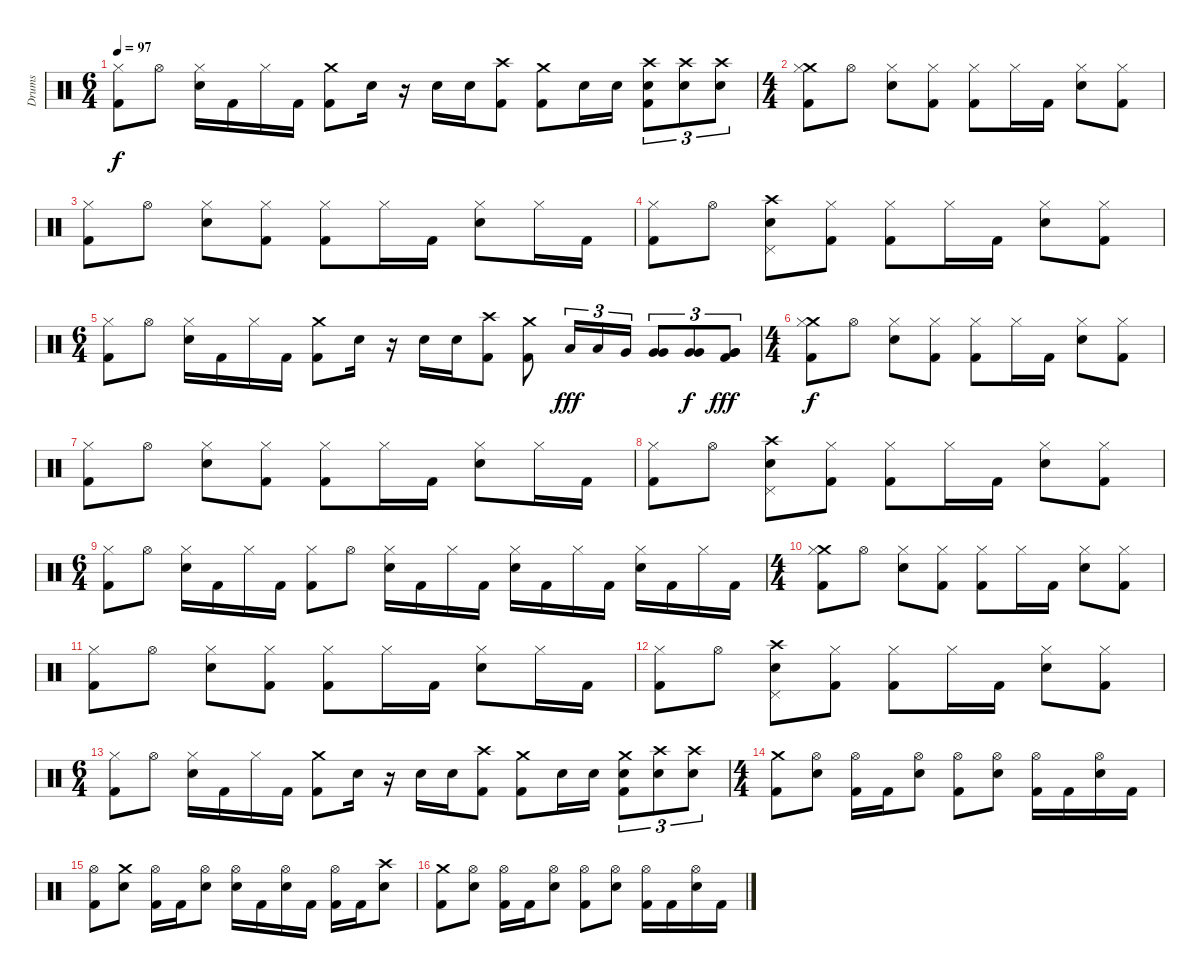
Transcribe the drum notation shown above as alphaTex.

\track ("Drums" "Drums") {instrument percussion}
\staff {score}
\articulation defaults
\ts (6 4)
\tempo 97
\clef neutral
\ks c
("Hi-Hat (closed)" "Kick (hit) 2").8{dy f} "Hi-Hat (open)".8 ("Hi-Hat (closed)" "Snare (hit) 2").16 "Kick (hit) 2".16 "Hi-Hat (closed)".16 "Kick (hit) 2".16 ("Crash medium (hit)" "Kick (hit) 2").8 "Snare (hit) 2".16 r.16 "Snare (hit) 2".16 "Snare (hit) 2".16 ("Crash high (hit)" "Kick (hit) 2").8 ("Crash medium (hit)" "Kick (hit) 2").8 "Snare (hit) 2".16 "Snare (hit) 2".16 ("Crash high (hit)" "Snare (hit) 2" "Kick (hit) 2").8{tu (3 2)} ("Crash high (hit)" "Snare (hit) 2").8{tu (3 2)} ("Crash high (hit)" "Snare (hit) 2").8{tu (3 2)} |
\ts (4 4)
("Crash medium (hit)" "Hi-Hat (closed)" "Kick (hit) 2").8 "Hi-Hat (open)".8 ("Hi-Hat (closed)" "Snare (hit) 2").8 ("Hi-Hat (closed)" "Kick (hit) 2").8 ("Hi-Hat (closed)" "Kick (hit) 2").8 "Hi-Hat (closed)".16 "Kick (hit) 2".16 ("Hi-Hat (closed)" "Snare (hit) 2").8 ("Hi-Hat (closed)" "Kick (hit) 2").8 |
("Hi-Hat (closed)" "Kick (hit) 2").8 "Hi-Hat (open)".8 ("Hi-Hat (closed)" "Snare (hit) 2").8 ("Hi-Hat (closed)" "Kick (hit) 2").8 ("Hi-Hat (closed)" "Kick (hit) 2").8 "Hi-Hat (closed)".16 "Kick (hit) 2".16 ("Hi-Hat (closed)" "Snare (hit) 2").8 "Hi-Hat (closed)".16 "Kick (hit) 2".16 |
("Hi-Hat (closed)" "Kick (hit) 2").8 "Hi-Hat (open)".8 ("Crash high (hit)" "Pedal Hi-Hat (hit)" "Snare (hit) 2").8 ("Hi-Hat (closed)" "Kick (hit) 2").8 ("Hi-Hat (closed)" "Kick (hit) 2").8 "Hi-Hat (closed)".16 "Kick (hit) 2".16 ("Hi-Hat (closed)" "Snare (hit) 2").8 ("Hi-Hat (closed)" "Kick (hit) 2").8 |
\ts (6 4)
("Hi-Hat (closed)" "Kick (hit) 2").8 "Hi-Hat (open)".8 ("Hi-Hat (closed)" "Snare (hit) 2").16 "Kick (hit) 2".16 "Hi-Hat (closed)".16 "Kick (hit) 2".16 ("Crash medium (hit)" "Kick (hit) 2").8 "Snare (hit) 2".16 r.16 "Snare (hit) 2".16 "Snare (hit) 2".16 ("Crash high (hit)" "Kick (hit) 2").8 ("Crash medium (hit)" "Kick (hit) 2").8 "Low Tom (hit)".16{tu (3 2) dy fff} "Low Tom (hit)".16{tu (3 2)} "Very Low Tom (hit)".16{tu (3 2)} ("Very Low Tom (hit)" "Very Low Tom (hit)").8{tu (3 2)} ("Very Low Tom (hit)" "Very Low Tom (hit)").8{tu (3 2) dy f} ("Very Low Tom (hit)" "Very Low Tom (hit)" "Kick (hit) 2").8{tu (3 2) dy fff} |
\ts (4 4)
("Crash medium (hit)" "Hi-Hat (closed)" "Kick (hit) 2").8{dy f} "Hi-Hat (open)".8 ("Hi-Hat (closed)" "Snare (hit) 2").8 ("Hi-Hat (closed)" "Kick (hit) 2").8 ("Hi-Hat (closed)" "Kick (hit) 2").8 "Hi-Hat (closed)".16 "Kick (hit) 2".16 ("Hi-Hat (closed)" "Snare (hit) 2").8 ("Hi-Hat (closed)" "Kick (hit) 2").8 |
("Hi-Hat (closed)" "Kick (hit) 2").8 "Hi-Hat (open)".8 ("Hi-Hat (closed)" "Snare (hit) 2").8 ("Hi-Hat (closed)" "Kick (hit) 2").8 ("Hi-Hat (closed)" "Kick (hit) 2").8 "Hi-Hat (closed)".16 "Kick (hit) 2".16 ("Hi-Hat (closed)" "Snare (hit) 2").8 "Hi-Hat (closed)".16 "Kick (hit) 2".16 |
("Hi-Hat (closed)" "Kick (hit) 2").8 "Hi-Hat (open)".8 ("Crash high (hit)" "Pedal Hi-Hat (hit)" "Snare (hit) 2").8 ("Hi-Hat (closed)" "Kick (hit) 2").8 ("Hi-Hat (closed)" "Kick (hit) 2").8 "Hi-Hat (closed)".16 "Kick (hit) 2".16 ("Hi-Hat (closed)" "Snare (hit) 2").8 ("Hi-Hat (closed)" "Kick (hit) 2").8 |
\ts (6 4)
("Hi-Hat (closed)" "Kick (hit) 2").8 "Hi-Hat (open)".8 ("Hi-Hat (closed)" "Snare (hit) 2").16 "Kick (hit) 2".16 "Hi-Hat (closed)".16 "Kick (hit) 2".16 ("Hi-Hat (closed)" "Kick (hit) 2").8 "Hi-Hat (open)".8 ("Hi-Hat (closed)" "Snare (hit) 2").16 "Kick (hit) 2".16 "Hi-Hat (closed)".16 "Kick (hit) 2".16 ("Hi-Hat (closed)" "Snare (hit) 2").16 "Kick (hit) 2".16 "Hi-Hat (closed)".16 "Kick (hit) 2".16 ("Hi-Hat (closed)" "Snare (hit) 2").16 "Kick (hit) 2".16 "Hi-Hat (closed)".16 "Kick (hit) 2".16 |
\ts (4 4)
("Crash medium (hit)" "Hi-Hat (closed)" "Kick (hit) 2").8 "Hi-Hat (open)".8 ("Hi-Hat (closed)" "Snare (hit) 2").8 ("Hi-Hat (closed)" "Kick (hit) 2").8 ("Hi-Hat (closed)" "Kick (hit) 2").8 "Hi-Hat (closed)".16 "Kick (hit) 2".16 ("Hi-Hat (closed)" "Snare (hit) 2").8 ("Hi-Hat (closed)" "Kick (hit) 2").8 |
("Hi-Hat (closed)" "Kick (hit) 2").8 "Hi-Hat (open)".8 ("Hi-Hat (closed)" "Snare (hit) 2").8 ("Hi-Hat (closed)" "Kick (hit) 2").8 ("Hi-Hat (closed)" "Kick (hit) 2").8 "Hi-Hat (closed)".16 "Kick (hit) 2".16 ("Hi-Hat (closed)" "Snare (hit) 2").8 "Hi-Hat (closed)".16 "Kick (hit) 2".16 |
("Hi-Hat (closed)" "Kick (hit) 2").8 "Hi-Hat (open)".8 ("Crash high (hit)" "Pedal Hi-Hat (hit)" "Snare (hit) 2").8 ("Hi-Hat (closed)" "Kick (hit) 2").8 ("Hi-Hat (closed)" "Kick (hit) 2").8 "Hi-Hat (closed)".16 "Kick (hit) 2".16 ("Hi-Hat (closed)" "Snare (hit) 2").8 ("Hi-Hat (closed)" "Kick (hit) 2").8 |
\ts (6 4)
("Hi-Hat (closed)" "Kick (hit) 2").8 "Hi-Hat (open)".8 ("Hi-Hat (closed)" "Snare (hit) 2").16 "Kick (hit) 2".16 "Hi-Hat (closed)".16 "Kick (hit) 2".16 ("Crash medium (hit)" "Kick (hit) 2").8 "Snare (hit) 2".16 r.16 "Snare (hit) 2".16 "Snare (hit) 2".16 ("Crash high (hit)" "Kick (hit) 2").8 ("Crash medium (hit)" "Kick (hit) 2").8 "Snare (hit) 2".16 "Snare (hit) 2".16 ("Crash medium (hit)" "Snare (hit) 2" "Kick (hit) 2").8{tu (3 2)} ("Crash high (hit)" "Snare (hit) 2").8{tu (3 2)} ("Crash high (hit)" "Snare (hit) 2").8{tu (3 2)} |
\ts (4 4)
("Crash medium (hit)" "Kick (hit) 2").8 ("Hi-Hat (open)" "Snare (hit) 2").8 ("Hi-Hat (open)" "Kick (hit) 2").16 "Kick (hit) 2".16 ("Hi-Hat (open)" "Snare (hit) 2").8 ("Hi-Hat (open)" "Kick (hit) 2").8 ("Hi-Hat (open)" "Snare (hit) 2").8 ("Hi-Hat (open)" "Kick (hit) 2").16 "Kick (hit) 2".16 ("Hi-Hat (open)" "Snare (hit) 2").16 "Kick (hit) 2".16 |
("Hi-Hat (open)" "Kick (hit) 2").8 ("Crash medium (hit)" "Snare (hit) 2").8 ("Hi-Hat (open)" "Kick (hit) 2").16 "Kick (hit) 2".16 ("Hi-Hat (open)" "Snare (hit) 2").8 ("Hi-Hat (open)" "Snare (hit) 2").16 "Kick (hit) 2".16 ("Hi-Hat (open)" "Snare (hit) 2").16 "Kick (hit) 2".16 ("Hi-Hat (open)" "Kick (hit) 2").16 "Kick (hit) 2".16 ("Crash high (hit)" "Snare (hit) 2").8 |
("Crash medium (hit)" "Kick (hit) 2").8 ("Hi-Hat (open)" "Snare (hit) 2").8 ("Hi-Hat (open)" "Kick (hit) 2").16 "Kick (hit) 2".16 ("Hi-Hat (open)" "Snare (hit) 2").8 ("Hi-Hat (open)" "Kick (hit) 2").8 ("Hi-Hat (open)" "Snare (hit) 2").8 ("Hi-Hat (open)" "Kick (hit) 2").16 "Kick (hit) 2".16 ("Hi-Hat (open)" "Snare (hit) 2").16 "Kick (hit) 2".16
